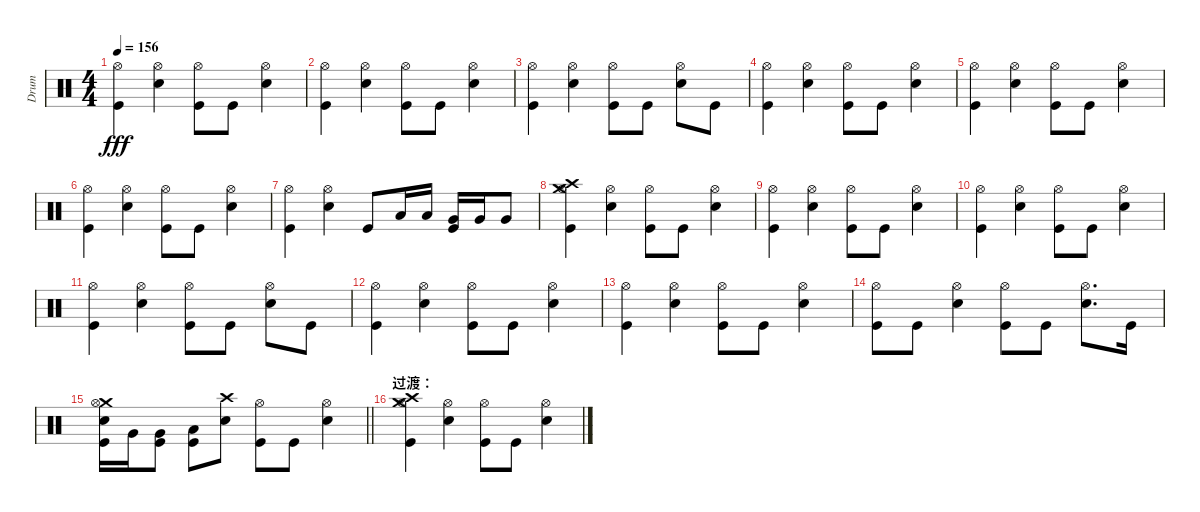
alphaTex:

\track ("Drum" "Drum") {instrument percussion}
\staff {score}
\articulation defaults
\ts (4 4)
\tempo 156
\clef neutral
\ks c
("Hi-Hat (open)" "Kick (hit)").4{dy fff} ("Hi-Hat (open)" "Metronome (bell)").4 ("Kick (hit)" "Hi-Hat (open)").8 "Kick (hit)".8 ("Hi-Hat (open)" "Metronome (bell)").4 |
("Kick (hit)" "Hi-Hat (open)").4 ("Metronome (bell)" "Hi-Hat (open)").4 ("Hi-Hat (open)" "Kick (hit)").8 "Kick (hit)".8 ("Hi-Hat (open)" "Metronome (bell)").4 |
("Kick (hit)" "Hi-Hat (open)").4 ("Metronome (bell)" "Hi-Hat (open)").4 ("Hi-Hat (open)" "Kick (hit)").8 "Kick (hit)".8 ("Metronome (bell)" "Hi-Hat (open)").8 "Kick (hit)".8 |
("Hi-Hat (open)" "Kick (hit)").4 ("Hi-Hat (open)" "Metronome (bell)").4 ("Kick (hit)" "Hi-Hat (open)").8 "Kick (hit)".8 ("Metronome (bell)" "Hi-Hat (open)").4 |
("Hi-Hat (open)" "Kick (hit)").4 ("Metronome (bell)" "Hi-Hat (open)").4 ("Hi-Hat (open)" "Kick (hit)").8 "Kick (hit)".8 ("Metronome (bell)" "Hi-Hat (open)").4 |
("Kick (hit)" "Hi-Hat (open)").4 ("Metronome (bell)" "Hi-Hat (open)").4 ("Hi-Hat (open)" "Kick (hit)").8 "Kick (hit)".8 ("Hi-Hat (open)" "Metronome (bell)").4 |
("Hi-Hat (open)" "Kick (hit)").4 ("Hi-Hat (open)" "Metronome (bell)").4 "Kick (hit)".8 "Low Tom (hit)".16 "Low Tom (hit)".16 ("Kick (hit)" "Very Low Tom (hit)").16 "Very Low Tom (hit)".16 "Very Low Tom (hit)".8 |
("Crash medium (hit)" "Hi-Hat (open)" "Crash high (hit)" "Kick (hit)").4 ("Metronome (bell)" "Hi-Hat (open)").4 ("Hi-Hat (open)" "Kick (hit)").8 "Kick (hit)".8 ("Metronome (bell)" "Hi-Hat (open)").4 |
("Hi-Hat (open)" "Kick (hit)").4 ("Hi-Hat (open)" "Metronome (bell)").4 ("Kick (hit)" "Hi-Hat (open)").8 "Kick (hit)".8 ("Hi-Hat (open)" "Metronome (bell)").4 |
("Kick (hit)" "Hi-Hat (open)").4 ("Metronome (bell)" "Hi-Hat (open)").4 ("Hi-Hat (open)" "Kick (hit)").8 "Kick (hit)".8 ("Hi-Hat (open)" "Metronome (bell)").4 |
("Kick (hit)" "Hi-Hat (open)").4 ("Metronome (bell)" "Hi-Hat (open)").4 ("Hi-Hat (open)" "Kick (hit)").8 "Kick (hit)".8 ("Metronome (bell)" "Hi-Hat (open)").8 "Kick (hit)".8 |
("Hi-Hat (open)" "Kick (hit)").4 ("Hi-Hat (open)" "Metronome (bell)").4 ("Kick (hit)" "Hi-Hat (open)").8 "Kick (hit)".8 ("Metronome (bell)" "Hi-Hat (open)").4 |
("Hi-Hat (open)" "Kick (hit)").4 ("Metronome (bell)" "Hi-Hat (open)").4 ("Hi-Hat (open)" "Kick (hit)").8 "Kick (hit)".8 ("Metronome (bell)" "Hi-Hat (open)").4 |
("Hi-Hat (open)" "Kick (hit)").8 "Kick (hit)".8 ("Hi-Hat (open)" "Metronome (bell)").4 ("Hi-Hat (open)" "Kick (hit)").8 "Kick (hit)".8 ("Metronome (bell)" "Hi-Hat (open)").8{d} "Kick (hit)".16 |
\barLineRight lightlight
("Crash medium (hit)" "Metronome (bell)" "Kick (hit)" "Hi-Hat (open)").16 "Very Low Tom (hit)".16 ("Very Low Tom (hit)" "Kick (hit)").8 ("Low Floor Tom (hit)" "Kick (hit)").8 ("Metronome (bell)" "Crash high (hit)").8 ("Kick (hit)" "Hi-Hat (open)").8 "Kick (hit)".8 ("Hi-Hat (open)" "Metronome (bell)").4 |
\section ("" "过渡：")
("Hi-Hat (open)" "Kick (hit)" "Crash medium (hit)" "Crash high (hit)").4 ("Metronome (bell)" "Hi-Hat (open)").4 ("Hi-Hat (open)" "Kick (hit)").8 "Kick (hit)".8 ("Metronome (bell)" "Hi-Hat (open)").4
